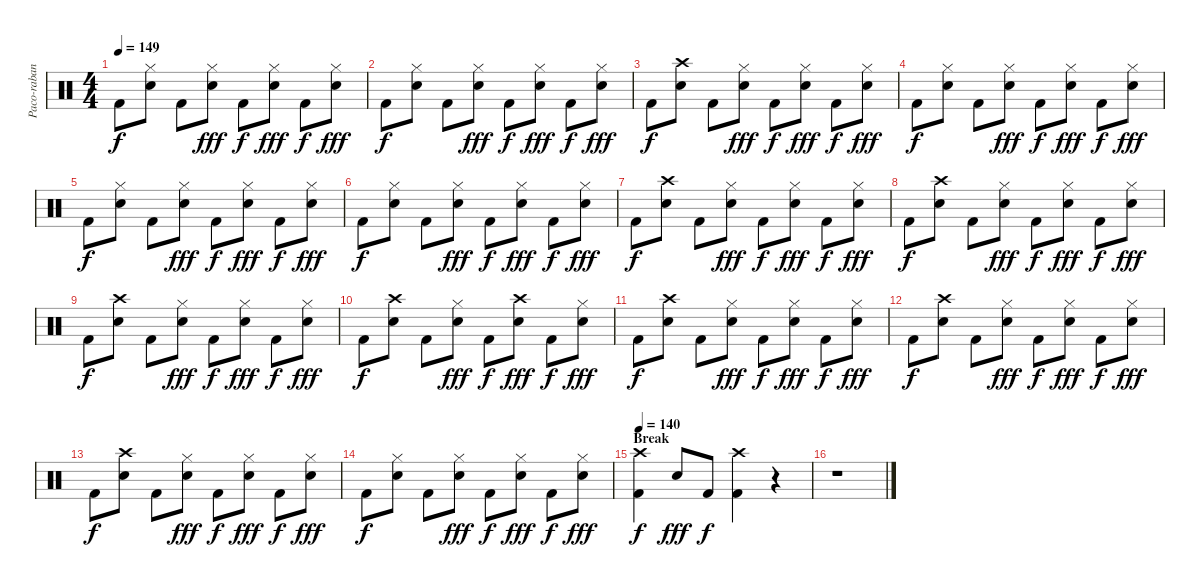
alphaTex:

\track ("Paco-rabane" "Paco-raban") {instrument percussion}
\staff {score}
\articulation defaults
\ts (4 4)
\tempo 149
\clef neutral
\ks c "Kick (hit) 2".8{dy f}
("Hi-Hat (closed)" "Snare (hit) 2").8 "Kick (hit) 2".8 ("Hi-Hat (closed)" "Snare (hit) 2").8{dy fff} "Kick (hit) 2".8{dy f} ("Hi-Hat (closed)" "Snare (hit) 2").8{dy fff} "Kick (hit) 2".8{dy f} ("Hi-Hat (closed)" "Snare (hit) 2").8{dy fff} |
"Kick (hit) 2".8{dy f} ("Hi-Hat (closed)" "Snare (hit) 2").8 "Kick (hit) 2".8 ("Hi-Hat (closed)" "Snare (hit) 2").8{dy fff} "Kick (hit) 2".8{dy f} ("Hi-Hat (closed)" "Snare (hit) 2").8{dy fff} "Kick (hit) 2".8{dy f} ("Hi-Hat (closed)" "Snare (hit) 2").8{dy fff} |
"Kick (hit) 2".8{dy f} ("Crash high (hit)" "Snare (hit) 2").8 "Kick (hit) 2".8 ("Hi-Hat (closed)" "Snare (hit) 2").8{dy fff} "Kick (hit) 2".8{dy f} ("Hi-Hat (closed)" "Snare (hit) 2").8{dy fff} "Kick (hit) 2".8{dy f} ("Hi-Hat (closed)" "Snare (hit) 2").8{dy fff} |
"Kick (hit) 2".8{dy f} ("Hi-Hat (closed)" "Snare (hit) 2").8 "Kick (hit) 2".8 ("Hi-Hat (closed)" "Snare (hit) 2").8{dy fff} "Kick (hit) 2".8{dy f} ("Hi-Hat (closed)" "Snare (hit) 2").8{dy fff} "Kick (hit) 2".8{dy f} ("Hi-Hat (closed)" "Snare (hit) 2").8{dy fff} |
"Kick (hit) 2".8{dy f} ("Hi-Hat (closed)" "Snare (hit) 2").8 "Kick (hit) 2".8 ("Hi-Hat (closed)" "Snare (hit) 2").8{dy fff} "Kick (hit) 2".8{dy f} ("Hi-Hat (closed)" "Snare (hit) 2").8{dy fff} "Kick (hit) 2".8{dy f} ("Hi-Hat (closed)" "Snare (hit) 2").8{dy fff} |
"Kick (hit) 2".8{dy f} ("Hi-Hat (closed)" "Snare (hit) 2").8 "Kick (hit) 2".8 ("Hi-Hat (closed)" "Snare (hit) 2").8{dy fff} "Kick (hit) 2".8{dy f} ("Hi-Hat (closed)" "Snare (hit) 2").8{dy fff} "Kick (hit) 2".8{dy f} ("Hi-Hat (closed)" "Snare (hit) 2").8{dy fff} |
"Kick (hit) 2".8{dy f} ("Crash high (hit)" "Snare (hit) 2").8 "Kick (hit) 2".8 ("Hi-Hat (closed)" "Snare (hit) 2").8{dy fff} "Kick (hit) 2".8{dy f} ("Hi-Hat (closed)" "Snare (hit) 2").8{dy fff} "Kick (hit) 2".8{dy f} ("Hi-Hat (closed)" "Snare (hit) 2").8{dy fff} |
"Kick (hit) 2".8{dy f} ("Crash high (hit)" "Snare (hit) 2").8 "Kick (hit) 2".8 ("Hi-Hat (closed)" "Snare (hit) 2").8{dy fff} "Kick (hit) 2".8{dy f} ("Hi-Hat (closed)" "Snare (hit) 2").8{dy fff} "Kick (hit) 2".8{dy f} ("Hi-Hat (closed)" "Snare (hit) 2").8{dy fff} |
"Kick (hit) 2".8{dy f} ("Crash high (hit)" "Snare (hit) 2").8 "Kick (hit) 2".8 ("Hi-Hat (closed)" "Snare (hit) 2").8{dy fff} "Kick (hit) 2".8{dy f} ("Hi-Hat (closed)" "Snare (hit) 2").8{dy fff} "Kick (hit) 2".8{dy f} ("Hi-Hat (closed)" "Snare (hit) 2").8{dy fff} |
"Kick (hit) 2".8{dy f} ("Crash high (hit)" "Snare (hit) 2").8 "Kick (hit) 2".8 ("Hi-Hat (closed)" "Snare (hit) 2").8{dy fff} "Kick (hit) 2".8{dy f} ("Crash high (hit)" "Snare (hit) 2").8{dy fff} "Kick (hit) 2".8{dy f} ("Hi-Hat (closed)" "Snare (hit) 2").8{dy fff} |
"Kick (hit) 2".8{dy f} ("Crash high (hit)" "Snare (hit) 2").8 "Kick (hit) 2".8 ("Hi-Hat (closed)" "Snare (hit) 2").8{dy fff} "Kick (hit) 2".8{dy f} ("Hi-Hat (closed)" "Snare (hit) 2").8{dy fff} "Kick (hit) 2".8{dy f} ("Hi-Hat (closed)" "Snare (hit) 2").8{dy fff} |
"Kick (hit) 2".8{dy f} ("Crash high (hit)" "Snare (hit) 2").8 "Kick (hit) 2".8 ("Hi-Hat (closed)" "Snare (hit) 2").8{dy fff} "Kick (hit) 2".8{dy f} ("Hi-Hat (closed)" "Snare (hit) 2").8{dy fff} "Kick (hit) 2".8{dy f} ("Hi-Hat (closed)" "Snare (hit) 2").8{dy fff} |
"Kick (hit) 2".8{dy f} ("Crash high (hit)" "Snare (hit) 2").8 "Kick (hit) 2".8 ("Hi-Hat (closed)" "Snare (hit) 2").8{dy fff} "Kick (hit) 2".8{dy f} ("Hi-Hat (closed)" "Snare (hit) 2").8{dy fff} "Kick (hit) 2".8{dy f} ("Hi-Hat (closed)" "Snare (hit) 2").8{dy fff} |
"Kick (hit) 2".8{dy f} ("Hi-Hat (closed)" "Snare (hit) 2").8 "Kick (hit) 2".8 ("Hi-Hat (closed)" "Snare (hit) 2").8{dy fff} "Kick (hit) 2".8{dy f} ("Hi-Hat (closed)" "Snare (hit) 2").8{dy fff} "Kick (hit) 2".8{dy f} ("Hi-Hat (closed)" "Snare (hit) 2").8{dy fff} |
\section ("" "Break")
\tempo 140
("Crash high (hit)" "Kick (hit) 2").4{dy f} "Snare (hit) 2".8{dy fff} "Kick (hit) 2".8{dy f} ("Crash high (hit)" "Kick (hit) 2").4 r.4 |
r.1
